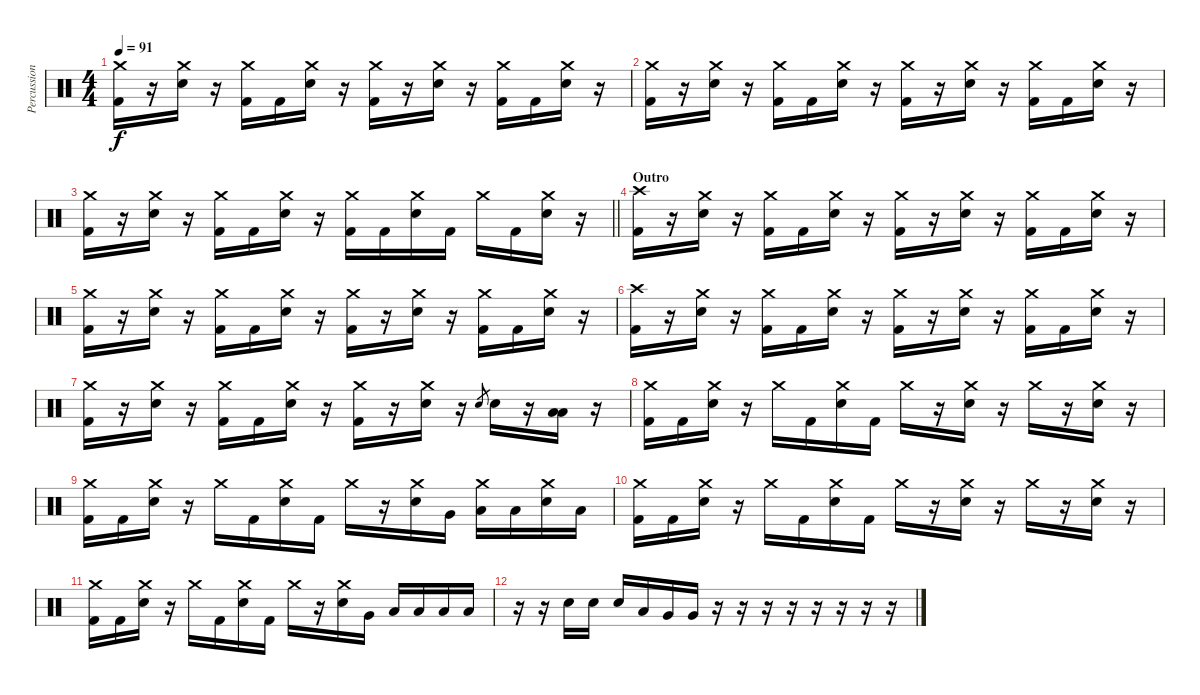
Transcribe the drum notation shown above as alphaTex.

\track ("Percussion" "Percussion") {instrument percussion}
\staff {score}
\articulation defaults
\ts (4 4)
\tempo 91
\clef neutral
\ks c
("Crash medium (hit)" "Kick (hit) 2").16{dy f} r.16 ("Crash medium (hit)" "Electric Snare (hit)").16 r.16 ("Crash medium (hit)" "Kick (hit) 2").16 "Kick (hit) 2".16 ("Crash medium (hit)" "Electric Snare (hit)").16 r.16 ("Crash medium (hit)" "Kick (hit) 2").16 r.16 ("Crash medium (hit)" "Electric Snare (hit)").16 r.16 ("Crash medium (hit)" "Kick (hit) 2").16 "Kick (hit) 2".16 ("Crash medium (hit)" "Electric Snare (hit)").16 r.16 |
("Crash medium (hit)" "Kick (hit) 2").16 r.16 ("Crash medium (hit)" "Electric Snare (hit)").16 r.16 ("Crash medium (hit)" "Kick (hit) 2").16 "Kick (hit) 2".16 ("Crash medium (hit)" "Electric Snare (hit)").16 r.16 ("Crash medium (hit)" "Kick (hit) 2").16 r.16 ("Crash medium (hit)" "Electric Snare (hit)").16 r.16 ("Crash medium (hit)" "Kick (hit) 2").16 "Kick (hit) 2".16 ("Crash medium (hit)" "Electric Snare (hit)").16 r.16 |
\barLineRight lightlight
("Crash medium (hit)" "Kick (hit) 2").16 r.16 ("Crash medium (hit)" "Electric Snare (hit)").16 r.16 ("Crash medium (hit)" "Kick (hit) 2").16 "Kick (hit) 2".16 ("Crash medium (hit)" "Electric Snare (hit)").16 r.16 ("Crash medium (hit)" "Kick (hit) 2").16 "Kick (hit) 2".16 ("Crash medium (hit)" "Electric Snare (hit)").16 "Kick (hit) 2".16 "Crash medium (hit)".16 "Kick (hit) 2".16 ("Crash medium (hit)" "Electric Snare (hit)").16 r.16 |
\section ("" "Outro")
("Crash high (hit)" "Kick (hit) 2").16 r.16 ("Crash medium (hit)" "Electric Snare (hit)").16 r.16 ("Crash medium (hit)" "Kick (hit) 2").16 "Kick (hit) 2".16 ("Crash medium (hit)" "Electric Snare (hit)").16 r.16 ("Crash medium (hit)" "Kick (hit) 2").16 r.16 ("Crash medium (hit)" "Electric Snare (hit)").16 r.16 ("Crash medium (hit)" "Kick (hit) 2").16 "Kick (hit) 2".16 ("Crash medium (hit)" "Electric Snare (hit)").16 r.16 |
("Crash medium (hit)" "Kick (hit) 2").16 r.16 ("Crash medium (hit)" "Electric Snare (hit)").16 r.16 ("Crash medium (hit)" "Kick (hit) 2").16 "Kick (hit) 2".16 ("Crash medium (hit)" "Electric Snare (hit)").16 r.16 ("Crash medium (hit)" "Kick (hit) 2").16 r.16 ("Crash medium (hit)" "Electric Snare (hit)").16 r.16 ("Crash medium (hit)" "Kick (hit) 2").16 "Kick (hit) 2".16 ("Crash medium (hit)" "Electric Snare (hit)").16 r.16 |
("Crash high (hit)" "Kick (hit) 2").16 r.16 ("Crash medium (hit)" "Electric Snare (hit)").16 r.16 ("Crash medium (hit)" "Kick (hit) 2").16 "Kick (hit) 2".16 ("Crash medium (hit)" "Electric Snare (hit)").16 r.16 ("Crash medium (hit)" "Kick (hit) 2").16 r.16 ("Crash medium (hit)" "Electric Snare (hit)").16 r.16 ("Crash medium (hit)" "Kick (hit) 2").16 "Kick (hit) 2".16 ("Crash medium (hit)" "Electric Snare (hit)").16 r.16 |
("Crash medium (hit)" "Kick (hit) 2").16 r.16 ("Crash medium (hit)" "Electric Snare (hit)").16 r.16 ("Crash medium (hit)" "Kick (hit) 2").16 "Kick (hit) 2".16 ("Crash medium (hit)" "Electric Snare (hit)").16 r.16 ("Crash medium (hit)" "Kick (hit) 2").16 r.16 ("Crash medium (hit)" "Electric Snare (hit)").16 r.16 "Electric Snare (hit)".8{gr} "Electric Snare (hit)".16 r.16 ("Low Tom (hit)" "Low Tom (hit)").16 r.16 |
("Crash medium (hit)" "Kick (hit) 2").16 "Kick (hit) 2".16 ("Crash medium (hit)" "Electric Snare (hit)").16 r.16 "Crash medium (hit)".16 "Kick (hit) 2".16 ("Crash medium (hit)" "Electric Snare (hit)").16 "Kick (hit) 2".16 "Crash medium (hit)".16 r.16 ("Crash medium (hit)" "Electric Snare (hit)").16 r.16 "Crash medium (hit)".16 r.16 ("Crash medium (hit)" "Electric Snare (hit)").16 r.16 |
("Crash medium (hit)" "Kick (hit) 2").16 "Kick (hit) 2".16 ("Crash medium (hit)" "Electric Snare (hit)").16 r.16 "Crash medium (hit)".16 "Kick (hit) 2".16 ("Crash medium (hit)" "Electric Snare (hit)").16 "Kick (hit) 2".16 "Crash medium (hit)".16 r.16 ("Crash medium (hit)" "Electric Snare (hit)").16 "Very Low Tom (hit)".16 ("Crash medium (hit)" "Low Tom (hit)").16 "Low Tom (hit)".16 ("Crash medium (hit)" "Electric Snare (hit)").16 "Low Tom (hit)".16 |
("Crash medium (hit)" "Kick (hit) 2").16 "Kick (hit) 2".16 ("Crash medium (hit)" "Electric Snare (hit)").16 r.16 "Crash medium (hit)".16 "Kick (hit) 2".16 ("Crash medium (hit)" "Electric Snare (hit)").16 "Kick (hit) 2".16 "Crash medium (hit)".16 r.16 ("Crash medium (hit)" "Electric Snare (hit)").16 r.16 "Crash medium (hit)".16 r.16 ("Crash medium (hit)" "Electric Snare (hit)").16 r.16 |
("Crash medium (hit)" "Kick (hit) 2").16 "Kick (hit) 2".16 ("Crash medium (hit)" "Electric Snare (hit)").16 r.16 "Crash medium (hit)".16 "Kick (hit) 2".16 ("Crash medium (hit)" "Electric Snare (hit)").16 "Kick (hit) 2".16 "Crash medium (hit)".16 r.16 ("Crash medium (hit)" "Electric Snare (hit)").16 "Very Low Tom (hit)".16 "Low Tom (hit)".16 "Low Tom (hit)".16 "Low Tom (hit)".16 "Low Tom (hit)".16 |
r.16 r.16 "Electric Snare (hit)".16 "Electric Snare (hit)".16 "Electric Snare (hit)".16 "Low Tom (hit)".16 "Very Low Tom (hit)".16 "Very Low Tom (hit)".16 r.16 r.16 r.16 r.16 r.16 r.16 r.16 r.16
